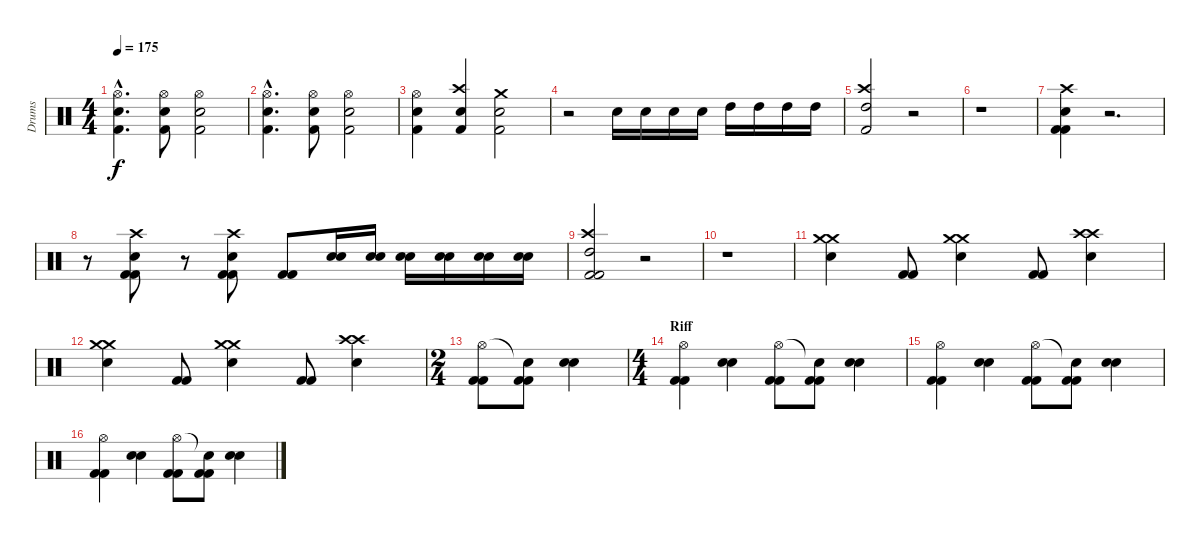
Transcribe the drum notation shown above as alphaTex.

\track ("Drums" "Drums") {instrument percussion}
\staff {score}
\articulation defaults
\ts (4 4)
\tempo 175
\clef neutral
\ks c
("Hi-Hat (open)"{hac} "Snare (hit) 2"{hac} "Kick (hit) 2"{hac}).4{d dy f} ("Hi-Hat (open)" "Snare (hit) 2" "Kick (hit) 2").8 ("Hi-Hat (open)" "Snare (hit) 2" "Kick (hit) 2").2 |
("Hi-Hat (open)"{hac} "Snare (hit) 2"{hac} "Kick (hit) 2"{hac}).4{d} ("Hi-Hat (open)" "Snare (hit) 2" "Kick (hit) 2").8 ("Hi-Hat (open)" "Snare (hit) 2" "Kick (hit) 2").2 |
("Hi-Hat (open)" "Snare (hit) 2" "Kick (hit) 2").4 ("Crash high (hit)" "Electric Snare (hit)" "Kick (hit) 2").4 ("Crash medium (hit)" "Snare (hit) 2" "Kick (hit) 2").2 |
r.2 "Snare (hit) 2".16 "Snare (hit) 2".16 "Snare (hit) 2".16 "Snare (hit) 2".16 "High Tom (hit)".16 "High Tom (hit)".16 "High Tom (hit)".16 "High Tom (hit)".16 |
("Crash high (hit)" "High Tom (hit)" "Kick (hit) 2").2 r.2 |
r.1 |
("Crash high (hit)" "Snare (hit) 2" "Kick (hit) 2" "Kick (hit) 2").4 r.2{d} |
r.8 ("Crash high (hit)" "Snare (hit) 2" "Kick (hit) 2" "Kick (hit) 2").8 r.8 ("Crash high (hit)" "Snare (hit) 2" "Kick (hit) 2" "Kick (hit) 2").8 ("Kick (hit) 2" "Kick (hit) 2").8 ("Snare (hit) 2" "Snare (hit) 2").16 ("Snare (hit) 2" "Snare (hit) 2").16 ("Snare (hit) 2" "Snare (hit) 2").16 ("Snare (hit) 2" "Snare (hit) 2").16 ("Snare (hit) 2" "Snare (hit) 2").16 ("Snare (hit) 2" "Snare (hit) 2").16 |
("Crash high (hit)" "High Tom (hit)" "Kick (hit) 2" "Kick (hit) 2").2 r.2 |
r.1 |
("Crash medium (hit)" "Crash medium (hit)" "Snare (hit) 2").4 ("Kick (hit) 2" "Kick (hit) 2").8 ("Crash medium (hit)" "Crash medium (hit)" "Snare (hit) 2").4 ("Kick (hit) 2" "Kick (hit) 2").8 ("Crash high (hit)" "Crash high (hit)" "Snare (hit) 2").4 |
("Crash medium (hit)" "Crash medium (hit)" "Snare (hit) 2").4 ("Kick (hit) 2" "Kick (hit) 2").8 ("Crash medium (hit)" "Crash medium (hit)" "Snare (hit) 2").4 ("Kick (hit) 2" "Kick (hit) 2").8 ("Crash high (hit)" "Crash high (hit)" "Snare (hit) 2").4 |
\ts (2 4)
("Kick (hit) 2" "Kick (hit) 2" "Hi-Hat (open)").8 ("Kick (hit) 2" "Kick (hit) 2" "Snare (hit)"{t}).8 ("Snare (hit) 2" "Snare (hit) 2").4 |
\ts (4 4)
\section ("" "Riff")
("Kick (hit) 2" "Kick (hit) 2" "Hi-Hat (open)").4 ("Snare (hit) 2" "Snare (hit) 2").4 ("Kick (hit) 2" "Kick (hit) 2" "Hi-Hat (open)").8 ("Kick (hit) 2" "Kick (hit) 2" "Snare (hit)"{t}).8 ("Snare (hit) 2" "Snare (hit) 2").4 |
("Kick (hit) 2" "Kick (hit) 2" "Hi-Hat (open)").4 ("Snare (hit) 2" "Snare (hit) 2").4 ("Kick (hit) 2" "Kick (hit) 2" "Hi-Hat (open)").8 ("Kick (hit) 2" "Kick (hit) 2" "Snare (hit)"{t}).8 ("Snare (hit) 2" "Snare (hit) 2").4 |
("Kick (hit) 2" "Kick (hit) 2" "Hi-Hat (open)").4 ("Snare (hit) 2" "Snare (hit) 2").4 ("Kick (hit) 2" "Kick (hit) 2" "Hi-Hat (open)").8 ("Kick (hit) 2" "Kick (hit) 2" "Snare (hit)"{t}).8 ("Snare (hit) 2" "Snare (hit) 2").4
